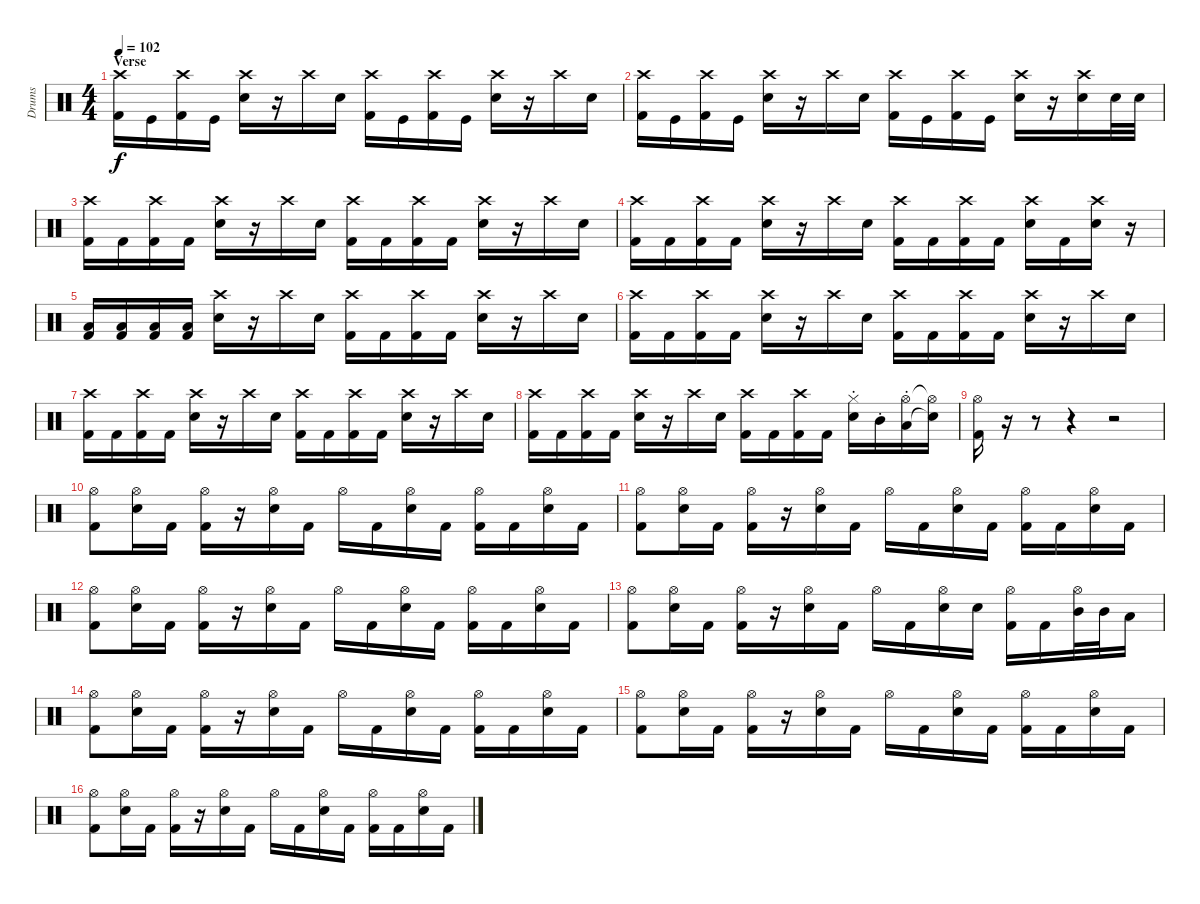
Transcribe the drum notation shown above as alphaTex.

\track ("Drums" "Drums") {instrument percussion}
\staff {score}
\articulation defaults
\ts (4 4)
\section ("" "Verse")
\tempo 102
\clef neutral
\ks c
("Kick (hit) 2" "Crash high (hit)").16{dy f} "Kick (hit)".16 ("Kick (hit) 2" "Crash high (hit)").16 "Kick (hit)".16 ("Electric Snare (hit)" "Crash high (hit)").16 r.16 "Crash high (hit)".16 "Electric Snare (hit)".16 ("Kick (hit) 2" "Crash high (hit)").16 "Kick (hit)".16 ("Kick (hit) 2" "Crash high (hit)").16 "Kick (hit)".16 ("Electric Snare (hit)" "Crash high (hit)").16 r.16 "Crash high (hit)".16 "Electric Snare (hit)".16 |
("Kick (hit) 2" "Crash high (hit)").16 "Kick (hit)".16 ("Kick (hit) 2" "Crash high (hit)").16 "Kick (hit)".16 ("Electric Snare (hit)" "Crash high (hit)").16 r.16 "Crash high (hit)".16 "Electric Snare (hit)".16 ("Kick (hit) 2" "Crash high (hit)").16 "Kick (hit)".16 ("Kick (hit) 2" "Crash high (hit)").16 "Kick (hit)".16 ("Electric Snare (hit)" "Crash high (hit)").16 r.16 ("Electric Snare (hit)" "Crash high (hit)").16 "Electric Snare (hit)".32 "Electric Snare (hit)".32 |
("Kick (hit) 2" "Crash high (hit)").16 "Kick (hit) 2".16 ("Kick (hit) 2" "Crash high (hit)").16 "Kick (hit) 2".16 ("Electric Snare (hit)" "Crash high (hit)").16 r.16 "Crash high (hit)".16 "Electric Snare (hit)".16 ("Kick (hit) 2" "Crash high (hit)").16 "Kick (hit) 2".16 ("Kick (hit) 2" "Crash high (hit)").16 "Kick (hit) 2".16 ("Electric Snare (hit)" "Crash high (hit)").16 r.16 "Crash high (hit)".16 "Electric Snare (hit)".16 |
("Kick (hit) 2" "Crash high (hit)").16 "Kick (hit) 2".16 ("Kick (hit) 2" "Crash high (hit)").16 "Kick (hit) 2".16 ("Electric Snare (hit)" "Crash high (hit)").16 r.16 "Crash high (hit)".16 "Electric Snare (hit)".16 ("Kick (hit) 2" "Crash high (hit)").16 "Kick (hit) 2".16 ("Kick (hit) 2" "Crash high (hit)").16 "Kick (hit) 2".16 ("Electric Snare (hit)" "Crash high (hit)").16 "Kick (hit) 2".16 ("Electric Snare (hit)" "Crash high (hit)").16 r.16 |
("Kick (hit) 2" "Low Floor Tom (hit)").16 ("Kick (hit) 2" "Low Floor Tom (hit)").16 ("Kick (hit) 2" "Low Floor Tom (hit)").16 ("Kick (hit) 2" "Low Floor Tom (hit)").16 ("Electric Snare (hit)" "Crash high (hit)").16 r.16 "Crash high (hit)".16 "Electric Snare (hit)".16 ("Kick (hit) 2" "Crash high (hit)").16 "Kick (hit) 2".16 ("Kick (hit) 2" "Crash high (hit)").16 "Kick (hit) 2".16 ("Electric Snare (hit)" "Crash high (hit)").16 r.16 "Crash high (hit)".16 "Electric Snare (hit)".16 |
("Kick (hit) 2" "Crash high (hit)").16 "Kick (hit) 2".16 ("Kick (hit) 2" "Crash high (hit)").16 "Kick (hit) 2".16 ("Electric Snare (hit)" "Crash high (hit)").16 r.16 "Crash high (hit)".16 "Electric Snare (hit)".16 ("Kick (hit) 2" "Crash high (hit)").16 "Kick (hit) 2".16 ("Kick (hit) 2" "Crash high (hit)").16 "Kick (hit) 2".16 ("Electric Snare (hit)" "Crash high (hit)").16 r.16 "Crash high (hit)".16 "Electric Snare (hit)".16 |
("Kick (hit) 2" "Crash high (hit)").16 "Kick (hit) 2".16 ("Kick (hit) 2" "Crash high (hit)").16 "Kick (hit) 2".16 ("Electric Snare (hit)" "Crash high (hit)").16 r.16 "Crash high (hit)".16 "Electric Snare (hit)".16 ("Kick (hit) 2" "Crash high (hit)").16 "Kick (hit) 2".16 ("Kick (hit) 2" "Crash high (hit)").16 "Kick (hit) 2".16 ("Electric Snare (hit)" "Crash high (hit)").16 r.16 "Crash high (hit)".16 "Electric Snare (hit)".16 |
("Kick (hit) 2" "Crash high (hit)").16 "Kick (hit) 2".16 ("Kick (hit) 2" "Crash high (hit)").16 "Kick (hit) 2".16 ("Electric Snare (hit)" "Crash high (hit)").16 r.16 "Crash high (hit)".16 "Electric Snare (hit)".16 ("Kick (hit) 2" "Crash high (hit)").16 "Kick (hit) 2".16 ("Kick (hit) 2" "Crash high (hit)").16 "Kick (hit) 2".16 ("Electric Snare (hit)"{st} "Hi-Hat (closed)"{st}).16 "Mid Tom (hit)"{st}.16 ("Low Floor Tom (hit)"{st} "Hi-Hat (open)"{st}).16 ("Electric Snare (hit)"{t} "Hi-Hat (open)"{t}).16 |
("Kick (hit) 2" "Hi-Hat (open)").16 r.16 r.8 r.4 r.2 |
("Kick (hit) 2" "Hi-Hat (open)").8 ("Electric Snare (hit)" "Hi-Hat (open)").16 "Kick (hit) 2".16 ("Kick (hit) 2" "Hi-Hat (open)").16 r.16 ("Electric Snare (hit)" "Hi-Hat (open)").16 "Kick (hit) 2".16 "Hi-Hat (open)".16 "Kick (hit) 2".16 ("Electric Snare (hit)" "Hi-Hat (open)").16 "Kick (hit) 2".16 ("Kick (hit) 2" "Hi-Hat (open)").16 "Kick (hit) 2".16 ("Electric Snare (hit)" "Hi-Hat (open)").16 "Kick (hit) 2".16 |
("Kick (hit) 2" "Hi-Hat (open)").8 ("Electric Snare (hit)" "Hi-Hat (open)").16 "Kick (hit) 2".16 ("Kick (hit) 2" "Hi-Hat (open)").16 r.16 ("Electric Snare (hit)" "Hi-Hat (open)").16 "Kick (hit) 2".16 "Hi-Hat (open)".16 "Kick (hit) 2".16 ("Electric Snare (hit)" "Hi-Hat (open)").16 "Kick (hit) 2".16 ("Kick (hit) 2" "Hi-Hat (open)").16 "Kick (hit) 2".16 ("Electric Snare (hit)" "Hi-Hat (open)").16 "Kick (hit) 2".16 |
("Kick (hit) 2" "Hi-Hat (open)").8 ("Electric Snare (hit)" "Hi-Hat (open)").16 "Kick (hit) 2".16 ("Kick (hit) 2" "Hi-Hat (open)").16 r.16 ("Electric Snare (hit)" "Hi-Hat (open)").16 "Kick (hit) 2".16 "Hi-Hat (open)".16 "Kick (hit) 2".16 ("Electric Snare (hit)" "Hi-Hat (open)").16 "Kick (hit) 2".16 ("Kick (hit) 2" "Hi-Hat (open)").16 "Kick (hit) 2".16 ("Electric Snare (hit)" "Hi-Hat (open)").16 "Kick (hit) 2".16 |
("Kick (hit) 2" "Hi-Hat (open)").8 ("Electric Snare (hit)" "Hi-Hat (open)").16 "Kick (hit) 2".16 ("Kick (hit) 2" "Hi-Hat (open)").16 r.16 ("Electric Snare (hit)" "Hi-Hat (open)").16 "Kick (hit) 2".16 "Hi-Hat (open)".16 "Kick (hit) 2".16 ("Electric Snare (hit)" "Hi-Hat (open)").16 "Electric Snare (hit)".16 ("Kick (hit) 2" "Hi-Hat (open)").16 "Kick (hit) 2".16 ("Mid Tom (hit)" "Hi-Hat (open)").32 "Mid Tom (hit)".32 "Low Tom (hit)".16 |
("Kick (hit) 2" "Hi-Hat (open)").8 ("Electric Snare (hit)" "Hi-Hat (open)").16 "Kick (hit) 2".16 ("Kick (hit) 2" "Hi-Hat (open)").16 r.16 ("Electric Snare (hit)" "Hi-Hat (open)").16 "Kick (hit) 2".16 "Hi-Hat (open)".16 "Kick (hit) 2".16 ("Electric Snare (hit)" "Hi-Hat (open)").16 "Kick (hit) 2".16 ("Kick (hit) 2" "Hi-Hat (open)").16 "Kick (hit) 2".16 ("Electric Snare (hit)" "Hi-Hat (open)").16 "Kick (hit) 2".16 |
("Kick (hit) 2" "Hi-Hat (open)").8 ("Electric Snare (hit)" "Hi-Hat (open)").16 "Kick (hit) 2".16 ("Kick (hit) 2" "Hi-Hat (open)").16 r.16 ("Electric Snare (hit)" "Hi-Hat (open)").16 "Kick (hit) 2".16 "Hi-Hat (open)".16 "Kick (hit) 2".16 ("Electric Snare (hit)" "Hi-Hat (open)").16 "Kick (hit) 2".16 ("Kick (hit) 2" "Hi-Hat (open)").16 "Kick (hit) 2".16 ("Electric Snare (hit)" "Hi-Hat (open)").16 "Kick (hit) 2".16 |
("Kick (hit) 2" "Hi-Hat (open)").8 ("Electric Snare (hit)" "Hi-Hat (open)").16 "Kick (hit) 2".16 ("Kick (hit) 2" "Hi-Hat (open)").16 r.16 ("Electric Snare (hit)" "Hi-Hat (open)").16 "Kick (hit) 2".16 "Hi-Hat (open)".16 "Kick (hit) 2".16 ("Electric Snare (hit)" "Hi-Hat (open)").16 "Kick (hit) 2".16 ("Kick (hit) 2" "Hi-Hat (open)").16 "Kick (hit) 2".16 ("Electric Snare (hit)" "Hi-Hat (open)").16 "Kick (hit) 2".16
